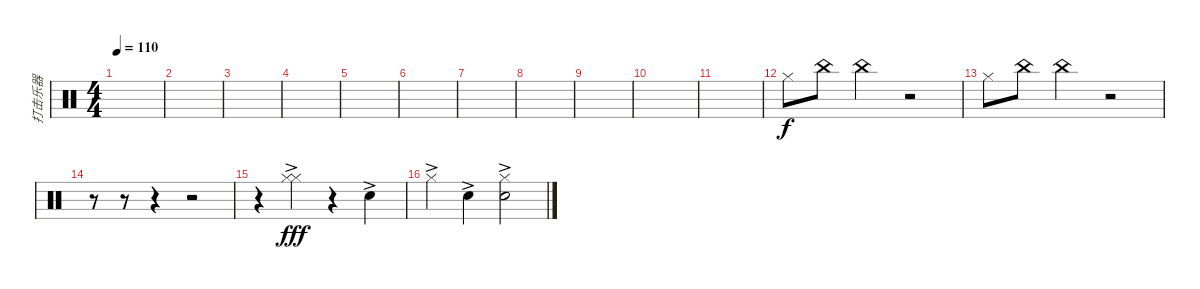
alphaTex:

\track ("打击乐器" "打击乐器") {instrument percussion}
\staff {score}
\articulation defaults
\ts (4 4)
\tempo 110
\clef neutral
\ks c
|
|
|
|
|
|
|
|
|
|
|
"Hi-Hat (closed)".8{dy f} "China (hit)".8 "China (hit)".4 r.2 |
"Hi-Hat (closed)".8 "China (hit)".8 "China (hit)".4 r.2 |
r.8 r.8 r.4 r.2 |
r.4 ("Hi-Hat (closed)"{ac} "Hi-Hat (closed)"{ac}).4{dy fff} r.4 "Hand Clap (hit)"{ac}.4 |
"Hi-Hat (closed)"{ac}.4 "Hand Clap (hit)"{ac}.4 ("Hand Clap (hit)"{ac} "Hi-Hat (closed)"{ac}).2
